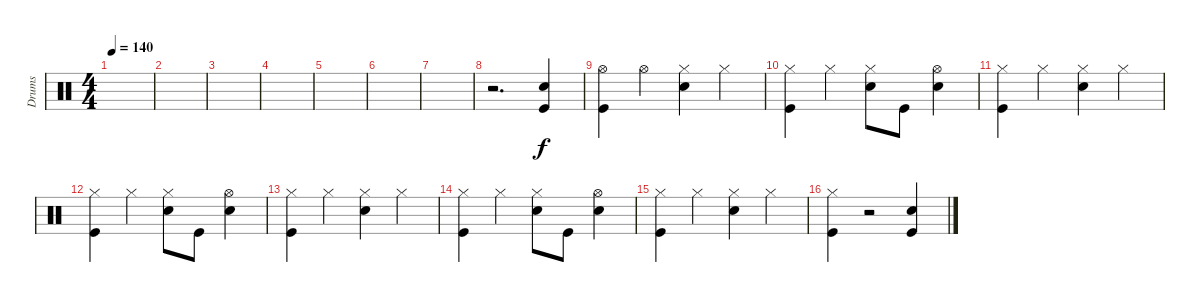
\track ("Drums" "Drums") {instrument percussion}
\staff {score}
\articulation defaults
\ts (4 4)
\tempo 140
\clef neutral
\ks c
|
|
|
|
|
|
|
r.2{d} ("Kick (hit)" "Snare (hit) 2").4 |
("Kick (hit)" "Hi-Hat (open)").4 "Hi-Hat (open)".4 ("Snare (hit) 2" "Hi-Hat (closed)").4 "Hi-Hat (closed)".4 |
("Kick (hit)" "Hi-Hat (closed)").4 "Hi-Hat (closed)".4 ("Snare (hit) 2" "Hi-Hat (closed)").8 "Kick (hit)".8 ("Snare (hit) 2" "Hi-Hat (open)").4 |
("Kick (hit)" "Hi-Hat (closed)").4 "Hi-Hat (closed)".4 ("Snare (hit) 2" "Hi-Hat (closed)").4 "Hi-Hat (closed)".4 |
("Kick (hit)" "Hi-Hat (closed)").4 "Hi-Hat (closed)".4 ("Snare (hit) 2" "Hi-Hat (closed)").8 "Kick (hit)".8 ("Snare (hit) 2" "Hi-Hat (open)").4 |
("Kick (hit)" "Hi-Hat (closed)").4 "Hi-Hat (closed)".4 ("Snare (hit) 2" "Hi-Hat (closed)").4 "Hi-Hat (closed)".4 |
("Kick (hit)" "Hi-Hat (closed)").4 "Hi-Hat (closed)".4 ("Snare (hit) 2" "Hi-Hat (closed)").8 "Kick (hit)".8 ("Snare (hit) 2" "Hi-Hat (open)").4 |
("Kick (hit)" "Hi-Hat (closed)").4 "Hi-Hat (closed)".4 ("Snare (hit) 2" "Hi-Hat (closed)").4 "Hi-Hat (closed)".4 |
("Kick (hit)" "Hi-Hat (closed)").4 r.2 ("Kick (hit)" "Snare (hit) 2").4
